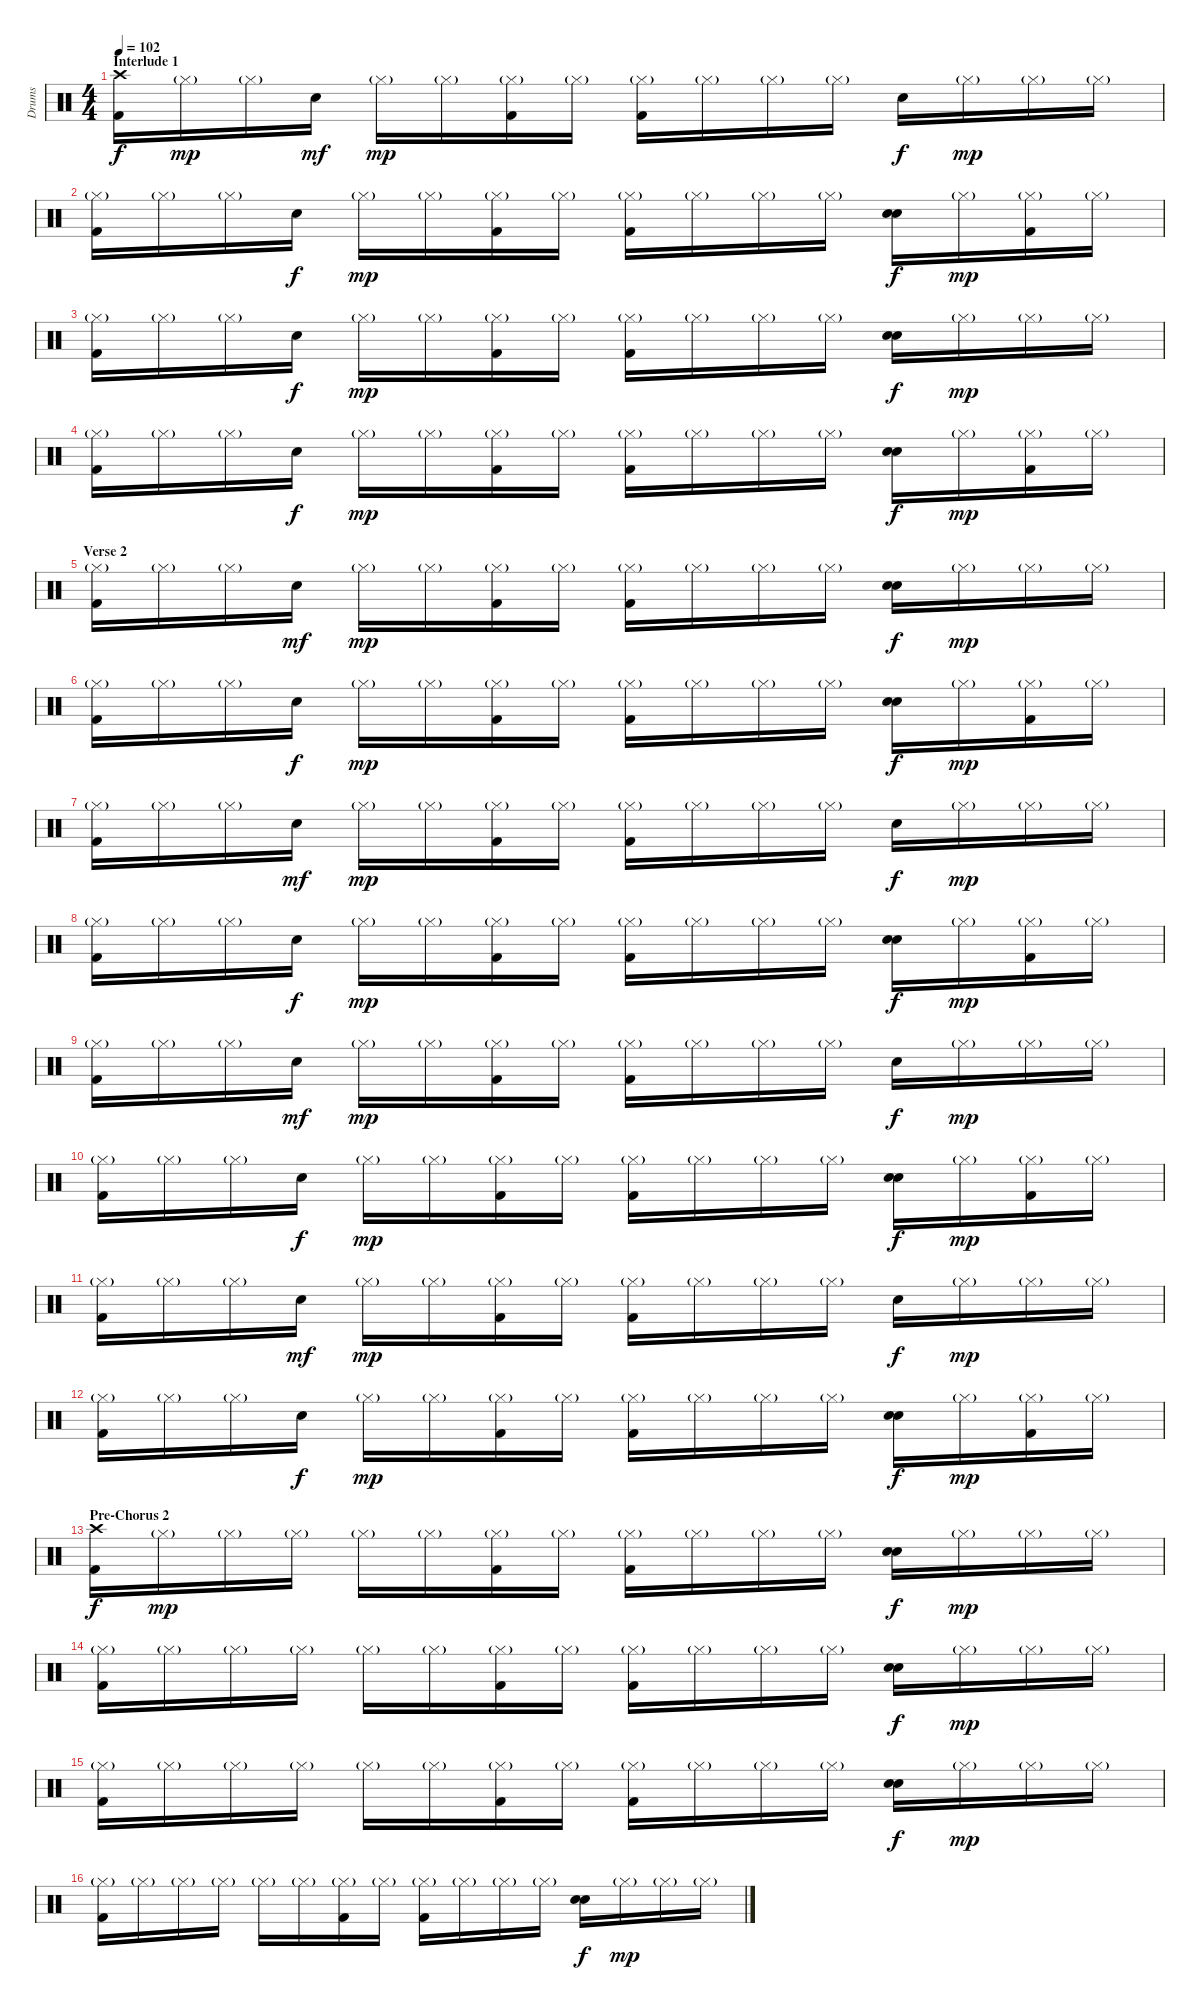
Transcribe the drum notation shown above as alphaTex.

\track ("Drums" "Drums") {instrument percussion}
\staff {score}
\articulation defaults
\ts (4 4)
\section ("" "Interlude 1")
\tempo 102
\clef neutral
\ks c
("Crash high (hit)" "Kick (hit) 2").16{dy f} "Hi-Hat (closed)"{g}.16{dy mp} "Hi-Hat (closed)"{g}.16 "Snare (hit) 2".16{dy mf} "Hi-Hat (closed)"{g}.16{dy mp} "Hi-Hat (closed)"{g}.16 ("Hi-Hat (closed)"{g} "Kick (hit) 2").16 "Hi-Hat (closed)"{g}.16 ("Hi-Hat (closed)"{g} "Kick (hit) 2").16 "Hi-Hat (closed)"{g}.16 "Hi-Hat (closed)"{g}.16 "Hi-Hat (closed)"{g}.16 "Snare (hit) 2".16{dy f} "Hi-Hat (closed)"{g}.16{dy mp} "Hi-Hat (closed)"{g}.16 "Hi-Hat (closed)"{g}.16 |
("Hi-Hat (closed)"{g} "Kick (hit) 2").16 "Hi-Hat (closed)"{g}.16 "Hi-Hat (closed)"{g}.16 "Snare (hit) 2".16{dy f} "Hi-Hat (closed)"{g}.16{dy mp} "Hi-Hat (closed)"{g}.16 ("Hi-Hat (closed)"{g} "Kick (hit) 2").16 "Hi-Hat (closed)"{g}.16 ("Hi-Hat (closed)"{g} "Kick (hit) 2").16 "Hi-Hat (closed)"{g}.16 "Hi-Hat (closed)"{g}.16 "Hi-Hat (closed)"{g}.16 ("Snare (hit) 2" "Snare (hit) 2").16{dy f} "Hi-Hat (closed)"{g}.16{dy mp} ("Hi-Hat (closed)"{g} "Kick (hit) 2").16 "Hi-Hat (closed)"{g}.16 |
("Hi-Hat (closed)"{g} "Kick (hit) 2").16 "Hi-Hat (closed)"{g}.16 "Hi-Hat (closed)"{g}.16 "Snare (hit) 2".16{dy f} "Hi-Hat (closed)"{g}.16{dy mp} "Hi-Hat (closed)"{g}.16 ("Hi-Hat (closed)"{g} "Kick (hit) 2").16 "Hi-Hat (closed)"{g}.16 ("Hi-Hat (closed)"{g} "Kick (hit) 2").16 "Hi-Hat (closed)"{g}.16 "Hi-Hat (closed)"{g}.16 "Hi-Hat (closed)"{g}.16 ("Snare (hit) 2" "Snare (hit) 2").16{dy f} "Hi-Hat (closed)"{g}.16{dy mp} "Hi-Hat (closed)"{g}.16 "Hi-Hat (closed)"{g}.16 |
("Hi-Hat (closed)"{g} "Kick (hit) 2").16 "Hi-Hat (closed)"{g}.16 "Hi-Hat (closed)"{g}.16 "Snare (hit) 2".16{dy f} "Hi-Hat (closed)"{g}.16{dy mp} "Hi-Hat (closed)"{g}.16 ("Hi-Hat (closed)"{g} "Kick (hit) 2").16 "Hi-Hat (closed)"{g}.16 ("Hi-Hat (closed)"{g} "Kick (hit) 2").16 "Hi-Hat (closed)"{g}.16 "Hi-Hat (closed)"{g}.16 "Hi-Hat (closed)"{g}.16 ("Snare (hit) 2" "Snare (hit) 2").16{dy f} "Hi-Hat (closed)"{g}.16{dy mp} ("Hi-Hat (closed)"{g} "Kick (hit) 2").16 "Hi-Hat (closed)"{g}.16 |
\section ("" "Verse 2")
("Hi-Hat (closed)"{g} "Kick (hit) 2").16 "Hi-Hat (closed)"{g}.16 "Hi-Hat (closed)"{g}.16 "Snare (hit) 2".16{dy mf} "Hi-Hat (closed)"{g}.16{dy mp} "Hi-Hat (closed)"{g}.16 ("Hi-Hat (closed)"{g} "Kick (hit) 2").16 "Hi-Hat (closed)"{g}.16 ("Hi-Hat (closed)"{g} "Kick (hit) 2").16 "Hi-Hat (closed)"{g}.16 "Hi-Hat (closed)"{g}.16 "Hi-Hat (closed)"{g}.16 ("Snare (hit) 2" "Snare (hit) 2").16{dy f} "Hi-Hat (closed)"{g}.16{dy mp} "Hi-Hat (closed)"{g}.16 "Hi-Hat (closed)"{g}.16 |
("Hi-Hat (closed)"{g} "Kick (hit) 2").16 "Hi-Hat (closed)"{g}.16 "Hi-Hat (closed)"{g}.16 "Snare (hit) 2".16{dy f} "Hi-Hat (closed)"{g}.16{dy mp} "Hi-Hat (closed)"{g}.16 ("Hi-Hat (closed)"{g} "Kick (hit) 2").16 "Hi-Hat (closed)"{g}.16 ("Hi-Hat (closed)"{g} "Kick (hit) 2").16 "Hi-Hat (closed)"{g}.16 "Hi-Hat (closed)"{g}.16 "Hi-Hat (closed)"{g}.16 ("Snare (hit) 2" "Snare (hit) 2").16{dy f} "Hi-Hat (closed)"{g}.16{dy mp} ("Hi-Hat (closed)"{g} "Kick (hit) 2").16 "Hi-Hat (closed)"{g}.16 |
("Hi-Hat (closed)"{g} "Kick (hit) 2").16 "Hi-Hat (closed)"{g}.16 "Hi-Hat (closed)"{g}.16 "Snare (hit) 2".16{dy mf} "Hi-Hat (closed)"{g}.16{dy mp} "Hi-Hat (closed)"{g}.16 ("Hi-Hat (closed)"{g} "Kick (hit) 2").16 "Hi-Hat (closed)"{g}.16 ("Hi-Hat (closed)"{g} "Kick (hit) 2").16 "Hi-Hat (closed)"{g}.16 "Hi-Hat (closed)"{g}.16 "Hi-Hat (closed)"{g}.16 "Snare (hit) 2".16{dy f} "Hi-Hat (closed)"{g}.16{dy mp} "Hi-Hat (closed)"{g}.16 "Hi-Hat (closed)"{g}.16 |
("Hi-Hat (closed)"{g} "Kick (hit) 2").16 "Hi-Hat (closed)"{g}.16 "Hi-Hat (closed)"{g}.16 "Snare (hit) 2".16{dy f} "Hi-Hat (closed)"{g}.16{dy mp} "Hi-Hat (closed)"{g}.16 ("Hi-Hat (closed)"{g} "Kick (hit) 2").16 "Hi-Hat (closed)"{g}.16 ("Hi-Hat (closed)"{g} "Kick (hit) 2").16 "Hi-Hat (closed)"{g}.16 "Hi-Hat (closed)"{g}.16 "Hi-Hat (closed)"{g}.16 ("Snare (hit) 2" "Snare (hit) 2").16{dy f} "Hi-Hat (closed)"{g}.16{dy mp} ("Hi-Hat (closed)"{g} "Kick (hit) 2").16 "Hi-Hat (closed)"{g}.16 |
("Hi-Hat (closed)"{g} "Kick (hit) 2").16 "Hi-Hat (closed)"{g}.16 "Hi-Hat (closed)"{g}.16 "Snare (hit) 2".16{dy mf} "Hi-Hat (closed)"{g}.16{dy mp} "Hi-Hat (closed)"{g}.16 ("Hi-Hat (closed)"{g} "Kick (hit) 2").16 "Hi-Hat (closed)"{g}.16 ("Hi-Hat (closed)"{g} "Kick (hit) 2").16 "Hi-Hat (closed)"{g}.16 "Hi-Hat (closed)"{g}.16 "Hi-Hat (closed)"{g}.16 "Snare (hit) 2".16{dy f} "Hi-Hat (closed)"{g}.16{dy mp} "Hi-Hat (closed)"{g}.16 "Hi-Hat (closed)"{g}.16 |
("Hi-Hat (closed)"{g} "Kick (hit) 2").16 "Hi-Hat (closed)"{g}.16 "Hi-Hat (closed)"{g}.16 "Snare (hit) 2".16{dy f} "Hi-Hat (closed)"{g}.16{dy mp} "Hi-Hat (closed)"{g}.16 ("Hi-Hat (closed)"{g} "Kick (hit) 2").16 "Hi-Hat (closed)"{g}.16 ("Hi-Hat (closed)"{g} "Kick (hit) 2").16 "Hi-Hat (closed)"{g}.16 "Hi-Hat (closed)"{g}.16 "Hi-Hat (closed)"{g}.16 ("Snare (hit) 2" "Snare (hit) 2").16{dy f} "Hi-Hat (closed)"{g}.16{dy mp} ("Hi-Hat (closed)"{g} "Kick (hit) 2").16 "Hi-Hat (closed)"{g}.16 |
("Hi-Hat (closed)"{g} "Kick (hit) 2").16 "Hi-Hat (closed)"{g}.16 "Hi-Hat (closed)"{g}.16 "Snare (hit) 2".16{dy mf} "Hi-Hat (closed)"{g}.16{dy mp} "Hi-Hat (closed)"{g}.16 ("Hi-Hat (closed)"{g} "Kick (hit) 2").16 "Hi-Hat (closed)"{g}.16 ("Hi-Hat (closed)"{g} "Kick (hit) 2").16 "Hi-Hat (closed)"{g}.16 "Hi-Hat (closed)"{g}.16 "Hi-Hat (closed)"{g}.16 "Snare (hit) 2".16{dy f} "Hi-Hat (closed)"{g}.16{dy mp} "Hi-Hat (closed)"{g}.16 "Hi-Hat (closed)"{g}.16 |
("Hi-Hat (closed)"{g} "Kick (hit) 2").16 "Hi-Hat (closed)"{g}.16 "Hi-Hat (closed)"{g}.16 "Snare (hit) 2".16{dy f} "Hi-Hat (closed)"{g}.16{dy mp} "Hi-Hat (closed)"{g}.16 ("Hi-Hat (closed)"{g} "Kick (hit) 2").16 "Hi-Hat (closed)"{g}.16 ("Hi-Hat (closed)"{g} "Kick (hit) 2").16 "Hi-Hat (closed)"{g}.16 "Hi-Hat (closed)"{g}.16 "Hi-Hat (closed)"{g}.16 ("Snare (hit) 2" "Snare (hit) 2").16{dy f} "Hi-Hat (closed)"{g}.16{dy mp} ("Hi-Hat (closed)"{g} "Kick (hit) 2").16 "Hi-Hat (closed)"{g}.16 |
\section ("" "Pre-Chorus 2")
("Crash high (hit)" "Kick (hit) 2").16{dy f} "Hi-Hat (closed)"{g}.16{dy mp} "Hi-Hat (closed)"{g}.16 "Hi-Hat (closed)"{g}.16 "Hi-Hat (closed)"{g}.16 "Hi-Hat (closed)"{g}.16 ("Hi-Hat (closed)"{g} "Kick (hit) 2").16 "Hi-Hat (closed)"{g}.16 ("Hi-Hat (closed)"{g} "Kick (hit) 2").16 "Hi-Hat (closed)"{g}.16 "Hi-Hat (closed)"{g}.16 "Hi-Hat (closed)"{g}.16 ("Snare (hit) 2" "Snare (hit) 2").16{dy f} "Hi-Hat (closed)"{g}.16{dy mp} "Hi-Hat (closed)"{g}.16 "Hi-Hat (closed)"{g}.16 |
("Hi-Hat (closed)"{g} "Kick (hit) 2").16 "Hi-Hat (closed)"{g}.16 "Hi-Hat (closed)"{g}.16 "Hi-Hat (closed)"{g}.16 "Hi-Hat (closed)"{g}.16 "Hi-Hat (closed)"{g}.16 ("Hi-Hat (closed)"{g} "Kick (hit) 2").16 "Hi-Hat (closed)"{g}.16 ("Hi-Hat (closed)"{g} "Kick (hit) 2").16 "Hi-Hat (closed)"{g}.16 "Hi-Hat (closed)"{g}.16 "Hi-Hat (closed)"{g}.16 ("Snare (hit) 2" "Snare (hit) 2").16{dy f} "Hi-Hat (closed)"{g}.16{dy mp} "Hi-Hat (closed)"{g}.16 "Hi-Hat (closed)"{g}.16 |
("Hi-Hat (closed)"{g} "Kick (hit) 2").16 "Hi-Hat (closed)"{g}.16 "Hi-Hat (closed)"{g}.16 "Hi-Hat (closed)"{g}.16 "Hi-Hat (closed)"{g}.16 "Hi-Hat (closed)"{g}.16 ("Hi-Hat (closed)"{g} "Kick (hit) 2").16 "Hi-Hat (closed)"{g}.16 ("Hi-Hat (closed)"{g} "Kick (hit) 2").16 "Hi-Hat (closed)"{g}.16 "Hi-Hat (closed)"{g}.16 "Hi-Hat (closed)"{g}.16 ("Snare (hit) 2" "Snare (hit) 2").16{dy f} "Hi-Hat (closed)"{g}.16{dy mp} "Hi-Hat (closed)"{g}.16 "Hi-Hat (closed)"{g}.16 |
("Hi-Hat (closed)"{g} "Kick (hit) 2").16 "Hi-Hat (closed)"{g}.16 "Hi-Hat (closed)"{g}.16 "Hi-Hat (closed)"{g}.16 "Hi-Hat (closed)"{g}.16 "Hi-Hat (closed)"{g}.16 ("Hi-Hat (closed)"{g} "Kick (hit) 2").16 "Hi-Hat (closed)"{g}.16 ("Hi-Hat (closed)"{g} "Kick (hit) 2").16 "Hi-Hat (closed)"{g}.16 "Hi-Hat (closed)"{g}.16 "Hi-Hat (closed)"{g}.16 ("Snare (hit) 2" "Snare (hit) 2").16{dy f} "Hi-Hat (closed)"{g}.16{dy mp} "Hi-Hat (closed)"{g}.16 "Hi-Hat (closed)"{g}.16
